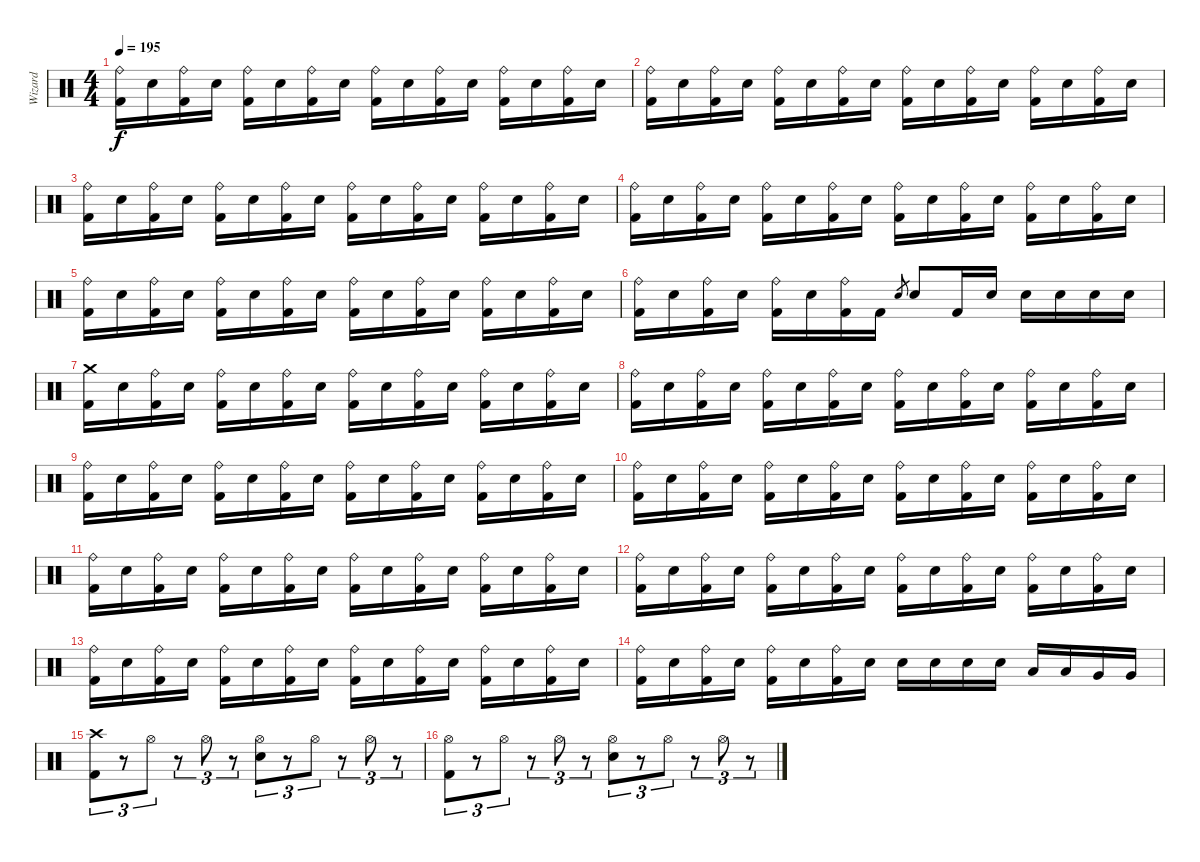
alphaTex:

\track ("Wizard" "Wizard") {instrument percussion}
\staff {score}
\articulation defaults
\ts (4 4)
\tempo 195
\clef neutral
\ks c
("Ride (bell)" "Kick (hit) 2").16{dy f} "Snare (hit) 2".16 ("Ride (bell)" "Kick (hit) 2").16 "Snare (hit) 2".16 ("Ride (bell)" "Kick (hit) 2").16 "Snare (hit) 2".16 ("Ride (bell)" "Kick (hit) 2").16 "Snare (hit) 2".16 ("Ride (bell)" "Kick (hit) 2").16 "Snare (hit) 2".16 ("Ride (bell)" "Kick (hit) 2").16 "Snare (hit) 2".16 ("Ride (bell)" "Kick (hit) 2").16 "Snare (hit) 2".16 ("Ride (bell)" "Kick (hit) 2").16 "Snare (hit) 2".16 |
("Ride (bell)" "Kick (hit) 2").16 "Snare (hit) 2".16 ("Ride (bell)" "Kick (hit) 2").16 "Snare (hit) 2".16 ("Ride (bell)" "Kick (hit) 2").16 "Snare (hit) 2".16 ("Ride (bell)" "Kick (hit) 2").16 "Snare (hit) 2".16 ("Ride (bell)" "Kick (hit) 2").16 "Snare (hit) 2".16 ("Ride (bell)" "Kick (hit) 2").16 "Snare (hit) 2".16 ("Ride (bell)" "Kick (hit) 2").16 "Snare (hit) 2".16 ("Ride (bell)" "Kick (hit) 2").16 "Snare (hit) 2".16 |
("Ride (bell)" "Kick (hit) 2").16 "Snare (hit) 2".16 ("Ride (bell)" "Kick (hit) 2").16 "Snare (hit) 2".16 ("Ride (bell)" "Kick (hit) 2").16 "Snare (hit) 2".16 ("Ride (bell)" "Kick (hit) 2").16 "Snare (hit) 2".16 ("Ride (bell)" "Kick (hit) 2").16 "Snare (hit) 2".16 ("Ride (bell)" "Kick (hit) 2").16 "Snare (hit) 2".16 ("Ride (bell)" "Kick (hit) 2").16 "Snare (hit) 2".16 ("Ride (bell)" "Kick (hit) 2").16 "Snare (hit) 2".16 |
("Ride (bell)" "Kick (hit) 2").16 "Snare (hit) 2".16 ("Ride (bell)" "Kick (hit) 2").16 "Snare (hit) 2".16 ("Ride (bell)" "Kick (hit) 2").16 "Snare (hit) 2".16 ("Ride (bell)" "Kick (hit) 2").16 "Snare (hit) 2".16 ("Ride (bell)" "Kick (hit) 2").16 "Snare (hit) 2".16 ("Ride (bell)" "Kick (hit) 2").16 "Snare (hit) 2".16 ("Ride (bell)" "Kick (hit) 2").16 "Snare (hit) 2".16 ("Ride (bell)" "Kick (hit) 2").16 "Snare (hit) 2".16 |
("Ride (bell)" "Kick (hit) 2").16 "Snare (hit) 2".16 ("Ride (bell)" "Kick (hit) 2").16 "Snare (hit) 2".16 ("Ride (bell)" "Kick (hit) 2").16 "Snare (hit) 2".16 ("Ride (bell)" "Kick (hit) 2").16 "Snare (hit) 2".16 ("Ride (bell)" "Kick (hit) 2").16 "Snare (hit) 2".16 ("Ride (bell)" "Kick (hit) 2").16 "Snare (hit) 2".16 ("Ride (bell)" "Kick (hit) 2").16 "Snare (hit) 2".16 ("Ride (bell)" "Kick (hit) 2").16 "Snare (hit) 2".16 |
("Ride (bell)" "Kick (hit) 2").16 "Snare (hit) 2".16 ("Ride (bell)" "Kick (hit) 2").16 "Snare (hit) 2".16 ("Ride (bell)" "Kick (hit) 2").16 "Snare (hit) 2".16 ("Ride (bell)" "Kick (hit) 2").16 "Kick (hit) 2".16 "Snare (hit) 2".8{gr} "Snare (hit) 2".8 "Kick (hit) 2".16 "Snare (hit) 2".16 "Snare (hit) 2".16 "Snare (hit) 2".16 "Snare (hit) 2".16 "Snare (hit) 2".16 |
("Crash medium (hit)" "Kick (hit) 2").16 "Snare (hit) 2".16 ("Ride (bell)" "Kick (hit) 2").16 "Snare (hit) 2".16 ("Ride (bell)" "Kick (hit) 2").16 "Snare (hit) 2".16 ("Ride (bell)" "Kick (hit) 2").16 "Snare (hit) 2".16 ("Ride (bell)" "Kick (hit) 2").16 "Snare (hit) 2".16 ("Ride (bell)" "Kick (hit) 2").16 "Snare (hit) 2".16 ("Ride (bell)" "Kick (hit) 2").16 "Snare (hit) 2".16 ("Ride (bell)" "Kick (hit) 2").16 "Snare (hit) 2".16 |
("Ride (bell)" "Kick (hit) 2").16 "Snare (hit) 2".16 ("Ride (bell)" "Kick (hit) 2").16 "Snare (hit) 2".16 ("Ride (bell)" "Kick (hit) 2").16 "Snare (hit) 2".16 ("Ride (bell)" "Kick (hit) 2").16 "Snare (hit) 2".16 ("Ride (bell)" "Kick (hit) 2").16 "Snare (hit) 2".16 ("Ride (bell)" "Kick (hit) 2").16 "Snare (hit) 2".16 ("Ride (bell)" "Kick (hit) 2").16 "Snare (hit) 2".16 ("Ride (bell)" "Kick (hit) 2").16 "Snare (hit) 2".16 |
("Ride (bell)" "Kick (hit) 2").16 "Snare (hit) 2".16 ("Ride (bell)" "Kick (hit) 2").16 "Snare (hit) 2".16 ("Ride (bell)" "Kick (hit) 2").16 "Snare (hit) 2".16 ("Ride (bell)" "Kick (hit) 2").16 "Snare (hit) 2".16 ("Ride (bell)" "Kick (hit) 2").16 "Snare (hit) 2".16 ("Ride (bell)" "Kick (hit) 2").16 "Snare (hit) 2".16 ("Ride (bell)" "Kick (hit) 2").16 "Snare (hit) 2".16 ("Ride (bell)" "Kick (hit) 2").16 "Snare (hit) 2".16 |
("Ride (bell)" "Kick (hit) 2").16 "Snare (hit) 2".16 ("Ride (bell)" "Kick (hit) 2").16 "Snare (hit) 2".16 ("Ride (bell)" "Kick (hit) 2").16 "Snare (hit) 2".16 ("Ride (bell)" "Kick (hit) 2").16 "Snare (hit) 2".16 ("Ride (bell)" "Kick (hit) 2").16 "Snare (hit) 2".16 ("Ride (bell)" "Kick (hit) 2").16 "Snare (hit) 2".16 ("Ride (bell)" "Kick (hit) 2").16 "Snare (hit) 2".16 ("Ride (bell)" "Kick (hit) 2").16 "Snare (hit) 2".16 |
("Ride (bell)" "Kick (hit) 2").16 "Snare (hit) 2".16 ("Ride (bell)" "Kick (hit) 2").16 "Snare (hit) 2".16 ("Ride (bell)" "Kick (hit) 2").16 "Snare (hit) 2".16 ("Ride (bell)" "Kick (hit) 2").16 "Snare (hit) 2".16 ("Ride (bell)" "Kick (hit) 2").16 "Snare (hit) 2".16 ("Ride (bell)" "Kick (hit) 2").16 "Snare (hit) 2".16 ("Ride (bell)" "Kick (hit) 2").16 "Snare (hit) 2".16 ("Ride (bell)" "Kick (hit) 2").16 "Snare (hit) 2".16 |
("Ride (bell)" "Kick (hit) 2").16 "Snare (hit) 2".16 ("Ride (bell)" "Kick (hit) 2").16 "Snare (hit) 2".16 ("Ride (bell)" "Kick (hit) 2").16 "Snare (hit) 2".16 ("Ride (bell)" "Kick (hit) 2").16 "Snare (hit) 2".16 ("Ride (bell)" "Kick (hit) 2").16 "Snare (hit) 2".16 ("Ride (bell)" "Kick (hit) 2").16 "Snare (hit) 2".16 ("Ride (bell)" "Kick (hit) 2").16 "Snare (hit) 2".16 ("Ride (bell)" "Kick (hit) 2").16 "Snare (hit) 2".16 |
("Ride (bell)" "Kick (hit) 2").16 "Snare (hit) 2".16 ("Ride (bell)" "Kick (hit) 2").16 "Snare (hit) 2".16 ("Ride (bell)" "Kick (hit) 2").16 "Snare (hit) 2".16 ("Ride (bell)" "Kick (hit) 2").16 "Snare (hit) 2".16 ("Ride (bell)" "Kick (hit) 2").16 "Snare (hit) 2".16 ("Ride (bell)" "Kick (hit) 2").16 "Snare (hit) 2".16 ("Ride (bell)" "Kick (hit) 2").16 "Snare (hit) 2".16 ("Ride (bell)" "Kick (hit) 2").16 "Snare (hit) 2".16 |
("Ride (bell)" "Kick (hit) 2").16 "Snare (hit) 2".16 ("Ride (bell)" "Kick (hit) 2").16 "Snare (hit) 2".16 ("Ride (bell)" "Kick (hit) 2").16 "Snare (hit) 2".16 ("Ride (bell)" "Kick (hit) 2").16 "Snare (hit) 2".16 "Snare (hit) 2".16 "Snare (hit) 2".16 "Snare (hit) 2".16 "Snare (hit) 2".16 "Low Tom (hit)".16 "Low Tom (hit)".16 "Very Low Tom (hit)".16 "Very Low Tom (hit)".16 |
("Crash high (hit)" "Kick (hit) 2").8{tu (3 2)} r.8{tu (3 2)} "Hi-Hat (open)".8{tu (3 2)} r.8{tu (3 2)} "Hi-Hat (open)".8{tu (3 2)} r.8{tu (3 2)} ("Hi-Hat (open)" "Snare (hit) 2").8{tu (3 2)} r.8{tu (3 2)} "Hi-Hat (open)".8{tu (3 2)} r.8{tu (3 2)} "Hi-Hat (open)".8{tu (3 2)} r.8{tu (3 2)} |
("Hi-Hat (open)" "Kick (hit) 2").8{tu (3 2)} r.8{tu (3 2)} "Hi-Hat (open)".8{tu (3 2)} r.8{tu (3 2)} "Hi-Hat (open)".8{tu (3 2)} r.8{tu (3 2)} ("Hi-Hat (open)" "Snare (hit) 2").8{tu (3 2)} r.8{tu (3 2)} "Hi-Hat (open)".8{tu (3 2)} r.8{tu (3 2)} "Hi-Hat (open)".8{tu (3 2)} r.8{tu (3 2)}
